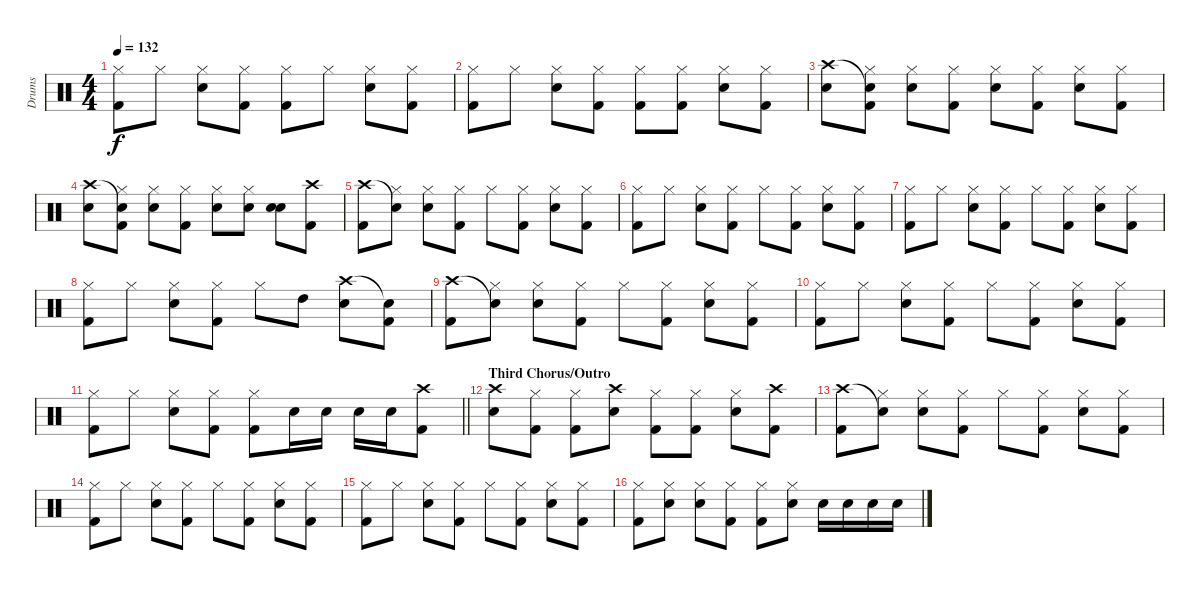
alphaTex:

\track ("Drums" "Drums") {instrument percussion}
\staff {score}
\articulation defaults
\ts (4 4)
\tempo 132
\clef neutral
\ks c
("Hi-Hat (closed)" "Kick (hit) 2").8{dy f} "Hi-Hat (closed)".8 ("Hi-Hat (closed)" "Snare (hit) 2").8 ("Hi-Hat (closed)" "Kick (hit) 2").8 ("Hi-Hat (closed)" "Kick (hit) 2").8 "Hi-Hat (closed)".8 ("Hi-Hat (closed)" "Snare (hit) 2").8 ("Hi-Hat (closed)" "Kick (hit) 2").8 |
("Hi-Hat (closed)" "Kick (hit) 2").8 "Hi-Hat (closed)".8 ("Hi-Hat (closed)" "Snare (hit) 2").8 ("Hi-Hat (closed)" "Kick (hit) 2").8 ("Hi-Hat (closed)" "Kick (hit) 2").8 ("Hi-Hat (closed)" "Kick (hit) 2").8 ("Hi-Hat (closed)" "Snare (hit) 2").8 ("Hi-Hat (closed)" "Kick (hit) 2").8 |
("Crash high (hit)" "Snare (hit) 2").8 ("Snare (hit)"{t} "Hi-Hat (closed)" "Kick (hit) 2").8 ("Hi-Hat (closed)" "Snare (hit) 2").8 ("Hi-Hat (closed)" "Kick (hit) 2").8 ("Hi-Hat (closed)" "Snare (hit) 2").8 ("Hi-Hat (closed)" "Kick (hit) 2").8 ("Hi-Hat (closed)" "Snare (hit) 2").8 ("Hi-Hat (closed)" "Kick (hit) 2").8 |
("Crash high (hit)" "Snare (hit) 2").8 ("Snare (hit)"{t} "Hi-Hat (closed)" "Kick (hit) 2").8 ("Hi-Hat (closed)" "Snare (hit) 2").8 ("Hi-Hat (closed)" "Kick (hit) 2").8 ("Hi-Hat (closed)" "Snare (hit) 2").8 ("Hi-Hat (closed)" "Snare (hit) 2").8 ("Snare (hit) 2" "Snare (hit) 2").8 ("Crash high (hit)" "Kick (hit) 2").8 |
("Crash high (hit)" "Kick (hit) 2").8 ("Snare (hit)"{t} "Hi-Hat (closed)").8 ("Hi-Hat (closed)" "Snare (hit) 2").8 ("Hi-Hat (closed)" "Kick (hit) 2").8 "Hi-Hat (closed)".8 ("Hi-Hat (closed)" "Kick (hit) 2").8 ("Hi-Hat (closed)" "Snare (hit) 2").8 ("Hi-Hat (closed)" "Kick (hit) 2").8 |
("Hi-Hat (closed)" "Kick (hit) 2").8 "Hi-Hat (closed)".8 ("Hi-Hat (closed)" "Snare (hit) 2").8 ("Hi-Hat (closed)" "Kick (hit) 2").8 "Hi-Hat (closed)".8 ("Hi-Hat (closed)" "Kick (hit) 2").8 ("Hi-Hat (closed)" "Snare (hit) 2").8 ("Hi-Hat (closed)" "Kick (hit) 2").8 |
("Hi-Hat (closed)" "Kick (hit) 2").8 "Hi-Hat (closed)".8 ("Hi-Hat (closed)" "Snare (hit) 2").8 ("Hi-Hat (closed)" "Kick (hit) 2").8 "Hi-Hat (closed)".8 ("Hi-Hat (closed)" "Kick (hit) 2").8 ("Hi-Hat (closed)" "Snare (hit) 2").8 ("Hi-Hat (closed)" "Kick (hit) 2").8 |
("Hi-Hat (closed)" "Kick (hit) 2").8 "Hi-Hat (closed)".8 ("Hi-Hat (closed)" "Snare (hit) 2").8 ("Hi-Hat (closed)" "Kick (hit) 2").8 "Hi-Hat (closed)".8 "High Tom (hit)".8 ("Crash high (hit)" "Snare (hit) 2").8 ("Snare (hit)"{t} "Kick (hit) 2").8 |
("Crash high (hit)" "Kick (hit) 2").8 ("Snare (hit)"{t} "Hi-Hat (closed)").8 ("Hi-Hat (closed)" "Snare (hit) 2").8 ("Hi-Hat (closed)" "Kick (hit) 2").8 "Hi-Hat (closed)".8 ("Hi-Hat (closed)" "Kick (hit) 2").8 ("Hi-Hat (closed)" "Snare (hit) 2").8 ("Hi-Hat (closed)" "Kick (hit) 2").8 |
("Hi-Hat (closed)" "Kick (hit) 2").8 "Hi-Hat (closed)".8 ("Hi-Hat (closed)" "Snare (hit) 2").8 ("Hi-Hat (closed)" "Kick (hit) 2").8 "Hi-Hat (closed)".8 ("Hi-Hat (closed)" "Kick (hit) 2").8 ("Hi-Hat (closed)" "Snare (hit) 2").8 ("Hi-Hat (closed)" "Kick (hit) 2").8 |
\barLineRight lightlight
("Hi-Hat (closed)" "Kick (hit) 2").8 "Hi-Hat (closed)".8 ("Hi-Hat (closed)" "Snare (hit) 2").8 ("Hi-Hat (closed)" "Kick (hit) 2").8 ("Hi-Hat (closed)" "Kick (hit) 2").8 "Snare (hit) 2".16 "Snare (hit) 2".16 "Snare (hit) 2".16 "Snare (hit) 2".16 ("Crash high (hit)" "Kick (hit) 2").8 |
\section ("" "Third Chorus/Outro")
("Crash high (hit)" "Snare (hit) 2").8 ("Hi-Hat (closed)" "Kick (hit) 2").8 ("Hi-Hat (closed)" "Kick (hit) 2").8 ("Crash high (hit)" "Snare (hit) 2").8 ("Hi-Hat (closed)" "Kick (hit) 2").8 ("Hi-Hat (closed)" "Kick (hit) 2").8 ("Hi-Hat (closed)" "Snare (hit) 2").8 ("Crash high (hit)" "Kick (hit) 2").8 |
("Crash high (hit)" "Kick (hit) 2").8 ("Snare (hit)"{t} "Hi-Hat (closed)").8 ("Hi-Hat (closed)" "Snare (hit) 2").8 ("Hi-Hat (closed)" "Kick (hit) 2").8 "Hi-Hat (closed)".8 ("Hi-Hat (closed)" "Kick (hit) 2").8 ("Hi-Hat (closed)" "Snare (hit) 2").8 ("Hi-Hat (closed)" "Kick (hit) 2").8 |
("Hi-Hat (closed)" "Kick (hit) 2").8 "Hi-Hat (closed)".8 ("Hi-Hat (closed)" "Snare (hit) 2").8 ("Hi-Hat (closed)" "Kick (hit) 2").8 "Hi-Hat (closed)".8 ("Hi-Hat (closed)" "Kick (hit) 2").8 ("Hi-Hat (closed)" "Snare (hit) 2").8 ("Hi-Hat (closed)" "Kick (hit) 2").8 |
("Hi-Hat (closed)" "Kick (hit) 2").8 "Hi-Hat (closed)".8 ("Hi-Hat (closed)" "Snare (hit) 2").8 ("Hi-Hat (closed)" "Kick (hit) 2").8 "Hi-Hat (closed)".8 ("Hi-Hat (closed)" "Kick (hit) 2").8 ("Hi-Hat (closed)" "Snare (hit) 2").8 ("Hi-Hat (closed)" "Kick (hit) 2").8 |
("Hi-Hat (closed)" "Kick (hit) 2").8 ("Hi-Hat (closed)" "Snare (hit) 2").8 ("Hi-Hat (closed)" "Snare (hit) 2").8 ("Hi-Hat (closed)" "Kick (hit) 2").8 ("Hi-Hat (closed)" "Kick (hit) 2").8 ("Hi-Hat (closed)" "Snare (hit) 2").8 "Snare (hit) 2".16 "Snare (hit) 2".16 "Snare (hit) 2".16 "Snare (hit) 2".16
